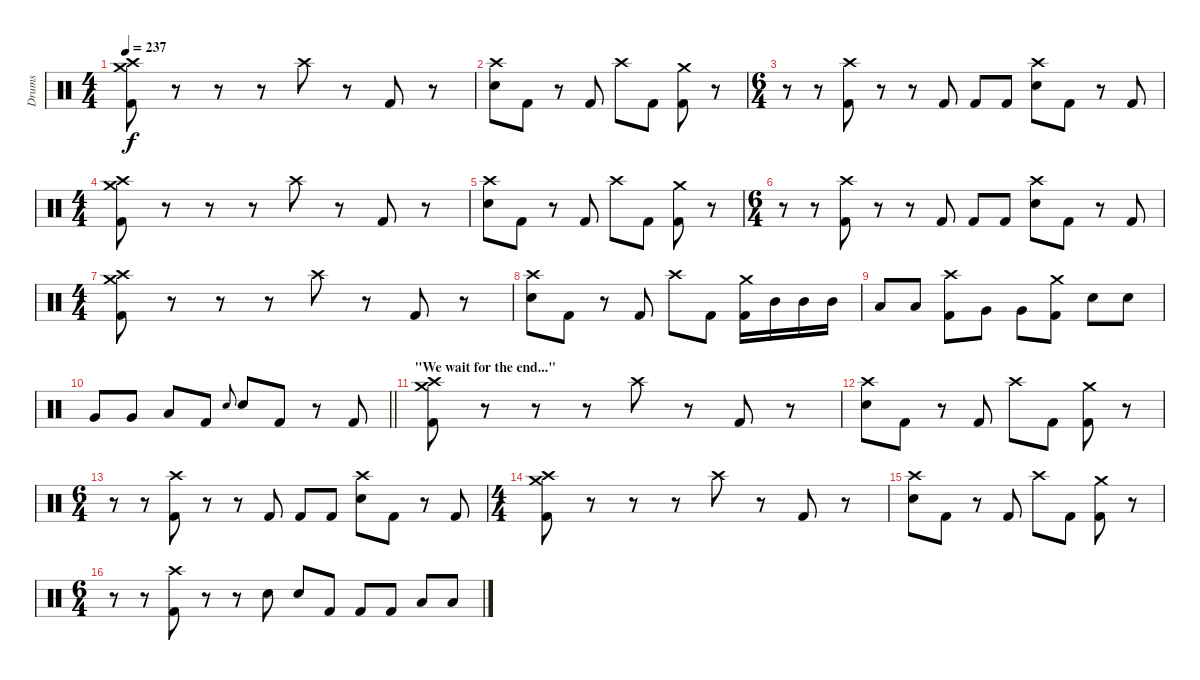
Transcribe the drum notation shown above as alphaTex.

\track ("Drums" "Drums") {instrument percussion}
\staff {score}
\articulation defaults
\ts (4 4)
\tempo 237
\clef neutral
\ks c
("Crash high (hit)" "Crash medium (hit)" "Kick (hit) 2").8{dy f} r.8 r.8 r.8 "Crash high (hit)".8 r.8 "Kick (hit) 2".8 r.8 |
("Crash high (hit)" "Electric Snare (hit)").8 "Kick (hit) 2".8 r.8 "Kick (hit) 2".8 "Crash high (hit)".8 "Kick (hit) 2".8 ("Crash medium (hit)" "Kick (hit) 2").8 r.8 |
\ts (6 4)
r.8 r.8 ("Crash high (hit)" "Kick (hit) 2").8 r.8 r.8 "Kick (hit) 2".8 "Kick (hit) 2".8 "Kick (hit) 2".8 ("Crash high (hit)" "Electric Snare (hit)").8 "Kick (hit) 2".8 r.8 "Kick (hit) 2".8 |
\ts (4 4)
("Crash high (hit)" "Crash medium (hit)" "Kick (hit) 2").8 r.8 r.8 r.8 "Crash high (hit)".8 r.8 "Kick (hit) 2".8 r.8 |
("Crash high (hit)" "Electric Snare (hit)").8 "Kick (hit) 2".8 r.8 "Kick (hit) 2".8 "Crash high (hit)".8 "Kick (hit) 2".8 ("Crash medium (hit)" "Kick (hit) 2").8 r.8 |
\ts (6 4)
r.8 r.8 ("Crash high (hit)" "Kick (hit) 2").8 r.8 r.8 "Kick (hit) 2".8 "Kick (hit) 2".8 "Kick (hit) 2".8 ("Crash high (hit)" "Electric Snare (hit)").8 "Kick (hit) 2".8 r.8 "Kick (hit) 2".8 |
\ts (4 4)
("Crash high (hit)" "Crash medium (hit)" "Kick (hit) 2").8 r.8 r.8 r.8 "Crash high (hit)".8 r.8 "Kick (hit) 2".8 r.8 |
("Crash high (hit)" "Electric Snare (hit)").8 "Kick (hit) 2".8 r.8 "Kick (hit) 2".8 "Crash high (hit)".8 "Kick (hit) 2".8 ("Crash medium (hit)" "Kick (hit) 2").16 "Mid Tom (hit)".16 "Mid Tom (hit)".16 "Mid Tom (hit)".16 |
"Low Tom (hit)".8 "Low Tom (hit)".8 ("Crash high (hit)" "Kick (hit) 2").8 "Very Low Tom (hit)".8 "Very Low Tom (hit)".8 ("Crash medium (hit)" "Kick (hit) 2").8 "Electric Snare (hit)".8 "Electric Snare (hit)".8 |
\barLineRight lightlight "Very Low Tom (hit)".8 "Very Low Tom (hit)".8 "Low Floor Tom (hit)".8 "Kick (hit) 2".8 "Electric Snare (hit)".8{gr onbeat} "Electric Snare (hit)".8 "Kick (hit) 2".8
r.8 "Kick (hit) 2".8 |
\section ("" "\"We wait for the end...\"")
("Crash high (hit)" "Crash medium (hit)" "Kick (hit) 2").8 r.8 r.8 r.8 "Crash high (hit)".8 r.8 "Kick (hit) 2".8 r.8 |
("Crash high (hit)" "Electric Snare (hit)").8 "Kick (hit) 2".8 r.8 "Kick (hit) 2".8 "Crash high (hit)".8 "Kick (hit) 2".8 ("Crash medium (hit)" "Kick (hit) 2").8 r.8 |
\ts (6 4)
r.8 r.8 ("Crash high (hit)" "Kick (hit) 2").8 r.8 r.8 "Kick (hit) 2".8 "Kick (hit) 2".8 "Kick (hit) 2".8 ("Crash high (hit)" "Electric Snare (hit)").8 "Kick (hit) 2".8 r.8 "Kick (hit) 2".8 |
\ts (4 4)
("Crash high (hit)" "Crash medium (hit)" "Kick (hit) 2").8 r.8 r.8 r.8 "Crash high (hit)".8 r.8 "Kick (hit) 2".8 r.8 |
("Crash high (hit)" "Electric Snare (hit)").8 "Kick (hit) 2".8 r.8 "Kick (hit) 2".8 "Crash high (hit)".8 "Kick (hit) 2".8 ("Crash medium (hit)" "Kick (hit) 2").8 r.8 |
\ts (6 4)
r.8 r.8 ("Crash high (hit)" "Kick (hit) 2").8 r.8 r.8 "Electric Snare (hit)".8 "Electric Snare (hit)".8 "Kick (hit) 2".8 "Kick (hit) 2".8 "Kick (hit) 2".8 "Low Floor Tom (hit)".8 "Low Floor Tom (hit)".8
